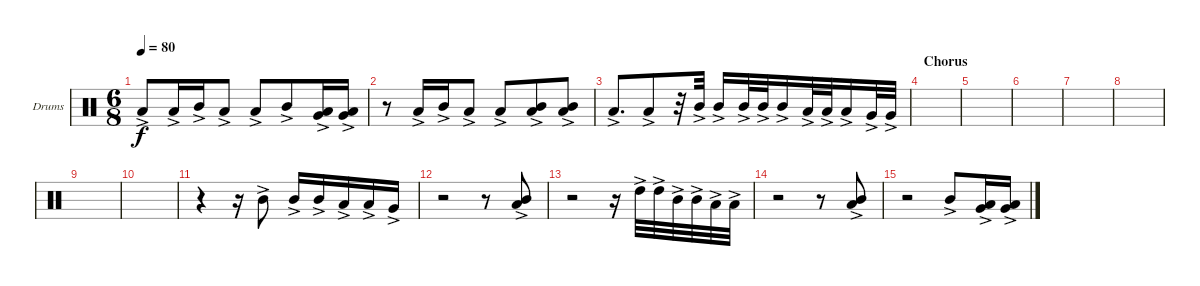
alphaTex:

\defaultSystemsLayout 4
\bracketExtendMode groupsimilarinstruments
\firstSystemTrackNameOrientation horizontal
\otherSystemsTrackNameOrientation horizontal
\track ("Drumkit" "Drums") {instrument percussion}
\staff {score}
\articulation defaults
\ts (6 8)
\tempo 80
\clef neutral
\scale
0.333333
\ks c "Low Tom (hit)"{ac}.8{dy f} "Low Tom (hit)"{ac}.16 "Mid Tom (hit)"{ac}.16 "Low Tom (hit)"{ac}.8 "Low Tom (hit)"{ac}.8 "Mid Tom (hit)"{ac}.8
("Low Tom (hit)"{ac} "Very Low Tom (hit)"{ac}).16 ("Low Tom (hit)"{ac} "Very Low Tom (hit)"{ac}).16 |
\scale
0.333333 r.8 "Low Tom (hit)"{ac}.16 "Mid Tom (hit)"{ac}.16 "Low Tom (hit)"{ac}.8 "Low Tom (hit)"{ac}.8 ("Mid Tom (hit)"{ac} "Low Tom (hit)"{ac}).8 ("Mid Tom (hit)"{ac} "Low Tom (hit)"{ac}).8 |
\scale
0.333333 "Low Tom (hit)"{ac}.8{d} "Low Tom (hit)"{ac}.8 r.32 "Mid Tom (hit)"{ac}.32 "Mid Tom (hit)"{ac}.16 "Mid Tom (hit)"{ac}.32 "Mid Tom (hit)"{ac}.32 "Mid Tom (hit)"{ac}.16 "Low Tom (hit)"{ac}.32 "Low Tom (hit)"{ac}.32 "Low Tom (hit)"{ac}.16 "Very Low Tom (hit)"{ac}.32 "Very Low Tom (hit)"{ac}.32 |
\section ("" "Chorus")
\scale
0.333333 |
\scale
0.333333 |
\scale
0.333333 |
\scale
0.333333 |
\scale
0.333333 |
\scale
0.333333 |
\scale
0.333333 |
\scale
0.333333 r.4 r.16 "Mid Tom (hit)"{ac}.8 "Mid Tom (hit)"{ac}.16 "Mid Tom (hit)"{ac}.16 "Low Tom (hit)"{ac}.16 "Low Tom (hit)"{ac}.16 "Very Low Tom (hit)"{ac}.16 |
\scale
0.333333 r.2 r.8 ("Mid Tom (hit)"{ac} "Low Tom (hit)"{ac}).8 |
\scale
0.333333 r.2 r.16 "High Tom (hit)"{ac}.32 "High Tom (hit)"{ac}.32 "Mid Tom (hit)"{ac}.32 "Mid Tom (hit)"{ac}.32 "Low Tom (hit)"{ac}.32 "Low Tom (hit)"{ac}.32 |
\scale
0.333333 r.2 r.8 ("Mid Tom (hit)"{ac} "Low Tom (hit)"{ac}).8 |
\scale
0.333333 r.2 "Mid Tom (hit)"{ac}.8 ("Low Tom (hit)"{ac} "Very Low Tom (hit)"{ac}).16 ("Low Tom (hit)"{ac} "Very Low Tom (hit)"{ac}).16 |
\scale
0.333333
